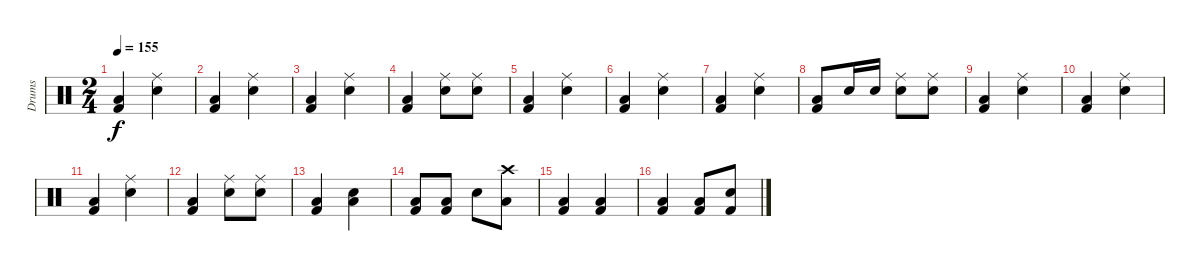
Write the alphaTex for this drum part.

\track ("Drums" "Drums") {instrument percussion}
\staff {score}
\articulation defaults
\ts (2 4)
\tempo 155
\clef neutral
\ks c
("Low Floor Tom (hit)" "Kick (hit) 2").4{dy f} ("Snare (hit) 2" "Ride (middle)").4 |
("Low Floor Tom (hit)" "Kick (hit) 2").4 ("Snare (hit) 2" "Ride (middle)").4 |
("Low Floor Tom (hit)" "Kick (hit) 2").4 ("Snare (hit) 2" "Ride (middle)").4 |
("Low Floor Tom (hit)" "Kick (hit) 2").4 ("Snare (hit) 2" "Ride (middle)").8 ("Snare (hit) 2" "Ride (middle)").8 |
("Low Floor Tom (hit)" "Kick (hit) 2").4 ("Snare (hit) 2" "Ride (middle)").4 |
("Low Floor Tom (hit)" "Kick (hit) 2").4 ("Snare (hit) 2" "Ride (middle)").4 |
("Low Floor Tom (hit)" "Kick (hit) 2").4 ("Snare (hit) 2" "Ride (middle)").4 |
("Low Floor Tom (hit)" "Kick (hit) 2").8 "Snare (hit) 2".16 "Snare (hit) 2".16 ("Snare (hit) 2" "Ride (middle)").8 ("Snare (hit) 2" "Ride (middle)").8 |
("Low Floor Tom (hit)" "Kick (hit) 2").4 ("Snare (hit) 2" "Ride (middle)").4 |
("Low Floor Tom (hit)" "Kick (hit) 2").4 ("Snare (hit) 2" "Ride (middle)").4 |
("Low Floor Tom (hit)" "Kick (hit) 2").4 ("Snare (hit) 2" "Ride (middle)").4 |
("Low Floor Tom (hit)" "Kick (hit) 2").4 ("Snare (hit) 2" "Ride (middle)").8 ("Snare (hit) 2" "Ride (middle)").8 |
("Low Floor Tom (hit)" "Kick (hit) 2").4 ("Low Floor Tom (hit)" "Snare (hit) 2").4 |
("Low Floor Tom (hit)" "Kick (hit) 2").8 ("Low Floor Tom (hit)" "Kick (hit) 2").8 "Snare (hit) 2".8 ("Low Floor Tom (hit)" "Crash high (hit)").8 |
("Low Floor Tom (hit)" "Kick (hit) 2").4 ("Low Floor Tom (hit)" "Kick (hit) 2").4 |
("Low Floor Tom (hit)" "Kick (hit) 2").4 ("Low Floor Tom (hit)" "Kick (hit) 2").8 ("Snare (hit) 2" "Kick (hit) 2").8
